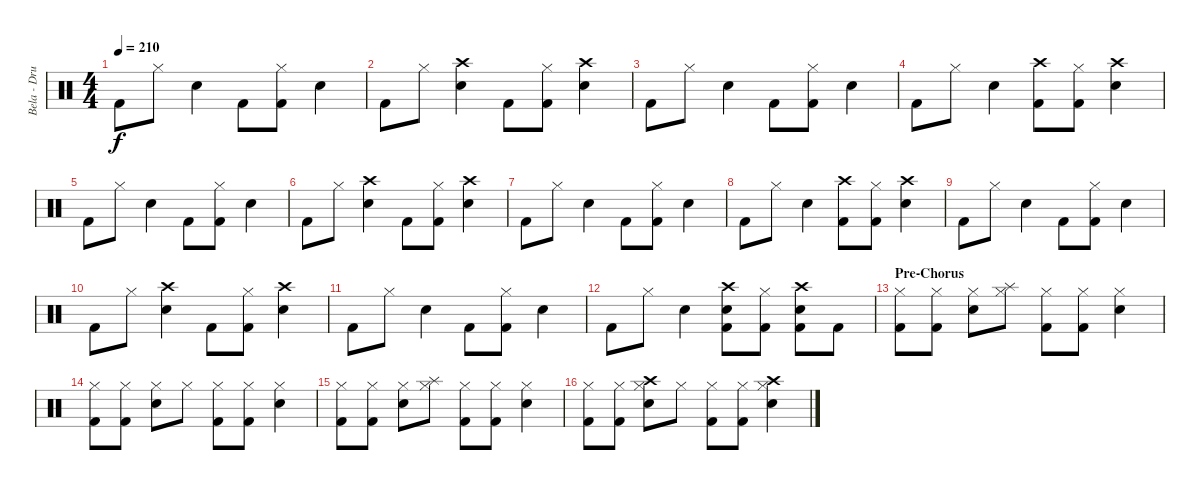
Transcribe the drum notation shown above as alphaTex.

\track ("Bela - Drums" "Bela - Dru") {instrument percussion}
\staff {score}
\articulation defaults
\ts (4 4)
\tempo 210
\clef neutral
\ks c "Kick (hit) 2".8{dy f} "Hi-Hat (closed)".8 "Electric Snare (hit)".4 "Kick (hit) 2".8
("Hi-Hat (closed)" "Kick (hit) 2").8 "Electric Snare (hit)".4 |
"Kick (hit) 2".8 "Hi-Hat (closed)".8 ("Crash high (hit)" "Electric Snare (hit)").4 "Kick (hit) 2".8 ("Hi-Hat (closed)" "Kick (hit) 2").8 ("Crash high (hit)" "Electric Snare (hit)").4 |
"Kick (hit) 2".8 "Hi-Hat (closed)".8 "Electric Snare (hit)".4 "Kick (hit) 2".8 ("Hi-Hat (closed)" "Kick (hit) 2").8 "Electric Snare (hit)".4 |
"Kick (hit) 2".8 "Hi-Hat (closed)".8 "Electric Snare (hit)".4 ("Crash high (hit)" "Kick (hit) 2").8 ("Hi-Hat (closed)" "Kick (hit) 2").8 ("Crash high (hit)" "Electric Snare (hit)").4 |
"Kick (hit) 2".8 "Hi-Hat (closed)".8 "Electric Snare (hit)".4 "Kick (hit) 2".8 ("Hi-Hat (closed)" "Kick (hit) 2").8 "Electric Snare (hit)".4 |
"Kick (hit) 2".8 "Hi-Hat (closed)".8 ("Crash high (hit)" "Electric Snare (hit)").4 "Kick (hit) 2".8 ("Hi-Hat (closed)" "Kick (hit) 2").8 ("Crash high (hit)" "Electric Snare (hit)").4 |
"Kick (hit) 2".8 "Hi-Hat (closed)".8 "Electric Snare (hit)".4 "Kick (hit) 2".8 ("Hi-Hat (closed)" "Kick (hit) 2").8 "Electric Snare (hit)".4 |
"Kick (hit) 2".8 "Hi-Hat (closed)".8 "Electric Snare (hit)".4 ("Crash high (hit)" "Kick (hit) 2").8 ("Hi-Hat (closed)" "Kick (hit) 2").8 ("Crash high (hit)" "Electric Snare (hit)").4 |
"Kick (hit) 2".8 "Hi-Hat (closed)".8 "Electric Snare (hit)".4 "Kick (hit) 2".8 ("Hi-Hat (closed)" "Kick (hit) 2").8 "Electric Snare (hit)".4 |
"Kick (hit) 2".8 "Hi-Hat (closed)".8 ("Crash high (hit)" "Electric Snare (hit)").4 "Kick (hit) 2".8 ("Hi-Hat (closed)" "Kick (hit) 2").8 ("Crash high (hit)" "Electric Snare (hit)").4 |
"Kick (hit) 2".8 "Hi-Hat (closed)".8 "Electric Snare (hit)".4 "Kick (hit) 2".8 ("Hi-Hat (closed)" "Kick (hit) 2").8 "Electric Snare (hit)".4 |
"Kick (hit) 2".8 "Hi-Hat (closed)".8 "Electric Snare (hit)".4 ("Crash high (hit)" "Electric Snare (hit)" "Kick (hit) 2").8 ("Hi-Hat (closed)" "Kick (hit) 2").8 ("Crash high (hit)" "Electric Snare (hit)" "Kick (hit) 2").8 "Kick (hit) 2".8 |
\section ("" "Pre-Chorus")
("Hi-Hat (closed)" "Kick (hit) 2").8 ("Hi-Hat (closed)" "Kick (hit) 2").8 ("Hi-Hat (closed)" "Electric Snare (hit)").8 ("Hi-Hat (closed)" "Splash (hit)").8 ("Hi-Hat (closed)" "Kick (hit) 2").8 ("Hi-Hat (closed)" "Kick (hit) 2").8 ("Hi-Hat (closed)" "Electric Snare (hit)").4 |
("Hi-Hat (closed)" "Kick (hit) 2").8 ("Hi-Hat (closed)" "Kick (hit) 2").8 ("Hi-Hat (closed)" "Electric Snare (hit)").8 "Hi-Hat (closed)".8 ("Hi-Hat (closed)" "Kick (hit) 2").8 ("Hi-Hat (closed)" "Kick (hit) 2").8 ("Hi-Hat (closed)" "Electric Snare (hit)").4 |
("Hi-Hat (closed)" "Kick (hit) 2").8 ("Hi-Hat (closed)" "Kick (hit) 2").8 ("Hi-Hat (closed)" "Electric Snare (hit)").8 ("Hi-Hat (closed)" "Splash (hit)").8 ("Hi-Hat (closed)" "Kick (hit) 2").8 ("Hi-Hat (closed)" "Kick (hit) 2").8 ("Hi-Hat (closed)" "Electric Snare (hit)").4 |
("Hi-Hat (closed)" "Kick (hit) 2").8 ("Hi-Hat (closed)" "Kick (hit) 2").8 ("Hi-Hat (closed)" "Crash high (hit)" "Electric Snare (hit)").8 "Hi-Hat (closed)".8 ("Hi-Hat (closed)" "Kick (hit) 2").8 ("Hi-Hat (closed)" "Kick (hit) 2").8 ("Hi-Hat (closed)" "Crash high (hit)" "Electric Snare (hit)").4
